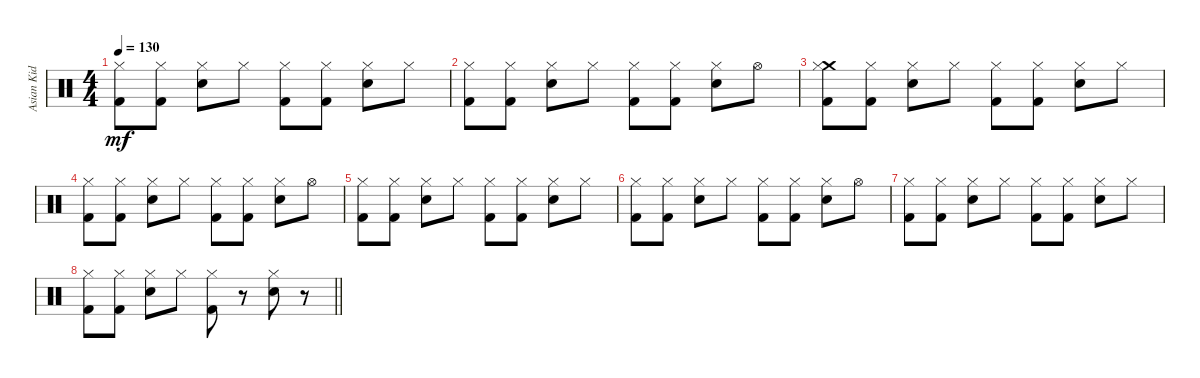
\track ("Asian Kid" "Asian Kid") {instrument percussion}
\staff {score}
\articulation defaults
\ts (4 4)
\tempo 130
\clef neutral
\ks c
("Hi-Hat (closed)" "Kick (hit) 2").8{dy mf} ("Hi-Hat (closed)" "Kick (hit) 2").8 ("Hi-Hat (closed)" "Electric Snare (hit)").8 "Hi-Hat (closed)".8 ("Hi-Hat (closed)" "Kick (hit) 2").8 ("Hi-Hat (closed)" "Kick (hit) 2").8 ("Hi-Hat (closed)" "Electric Snare (hit)").8 "Hi-Hat (closed)".8 |
("Hi-Hat (closed)" "Kick (hit) 2").8 ("Hi-Hat (closed)" "Kick (hit) 2").8 ("Hi-Hat (closed)" "Electric Snare (hit)").8 "Hi-Hat (closed)".8 ("Hi-Hat (closed)" "Kick (hit) 2").8 ("Hi-Hat (closed)" "Kick (hit) 2").8 ("Hi-Hat (closed)" "Electric Snare (hit)").8 "Hi-Hat (open)".8 |
("Crash medium (hit)" "Hi-Hat (closed)" "Kick (hit) 2").8 ("Hi-Hat (closed)" "Kick (hit) 2").8 ("Hi-Hat (closed)" "Electric Snare (hit)").8 "Hi-Hat (closed)".8 ("Hi-Hat (closed)" "Kick (hit) 2").8 ("Hi-Hat (closed)" "Kick (hit) 2").8 ("Hi-Hat (closed)" "Electric Snare (hit)").8 "Hi-Hat (closed)".8 |
("Hi-Hat (closed)" "Kick (hit) 2").8 ("Hi-Hat (closed)" "Kick (hit) 2").8 ("Hi-Hat (closed)" "Electric Snare (hit)").8 "Hi-Hat (closed)".8 ("Hi-Hat (closed)" "Kick (hit) 2").8 ("Hi-Hat (closed)" "Kick (hit) 2").8 ("Hi-Hat (closed)" "Electric Snare (hit)").8 "Hi-Hat (open)".8 |
("Hi-Hat (closed)" "Kick (hit) 2").8 ("Hi-Hat (closed)" "Kick (hit) 2").8 ("Hi-Hat (closed)" "Electric Snare (hit)").8 "Hi-Hat (closed)".8 ("Hi-Hat (closed)" "Kick (hit) 2").8 ("Hi-Hat (closed)" "Kick (hit) 2").8 ("Hi-Hat (closed)" "Electric Snare (hit)").8 "Hi-Hat (closed)".8 |
("Hi-Hat (closed)" "Kick (hit) 2").8 ("Hi-Hat (closed)" "Kick (hit) 2").8 ("Hi-Hat (closed)" "Electric Snare (hit)").8 "Hi-Hat (closed)".8 ("Hi-Hat (closed)" "Kick (hit) 2").8 ("Hi-Hat (closed)" "Kick (hit) 2").8 ("Hi-Hat (closed)" "Electric Snare (hit)").8 "Hi-Hat (open)".8 |
("Hi-Hat (closed)" "Kick (hit) 2").8 ("Hi-Hat (closed)" "Kick (hit) 2").8 ("Hi-Hat (closed)" "Electric Snare (hit)").8 "Hi-Hat (closed)".8 ("Hi-Hat (closed)" "Kick (hit) 2").8 ("Hi-Hat (closed)" "Kick (hit) 2").8 ("Hi-Hat (closed)" "Electric Snare (hit)").8 "Hi-Hat (closed)".8 |
\barLineRight lightlight
("Hi-Hat (closed)" "Kick (hit) 2").8 ("Hi-Hat (closed)" "Kick (hit) 2").8 ("Hi-Hat (closed)" "Electric Snare (hit)").8 "Hi-Hat (closed)".8 ("Hi-Hat (closed)" "Kick (hit) 2").8 r.8 ("Hi-Hat (closed)" "Electric Snare (hit)").8 r.8
